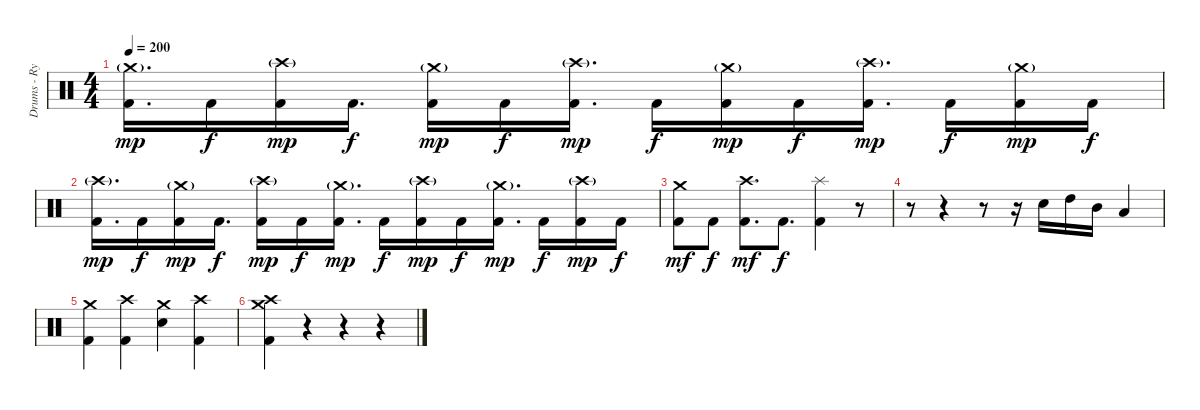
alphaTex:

\track ("Drums - Ryan Bates" "Drums - Ry") {instrument percussion}
\staff {score}
\articulation defaults
\ts (4 4)
\tempo 200
\clef neutral
\ks c
("Crash medium (hit)"{g} "Kick (hit) 2").16{d dy mp} "Kick (hit) 2".16{dy f} ("Crash high (hit)"{g} "Kick (hit) 2").16{dy mp} "Kick (hit) 2".16{d dy f} ("Crash medium (hit)"{g} "Kick (hit) 2").16{dy mp} "Kick (hit) 2".16{dy f} ("Crash high (hit)"{g} "Kick (hit) 2").16{d dy mp} "Kick (hit) 2".16{dy f} ("Crash medium (hit)"{g} "Kick (hit) 2").16{dy mp} "Kick (hit) 2".16{dy f} ("Crash high (hit)"{g} "Kick (hit) 2").16{d dy mp} "Kick (hit) 2".16{dy f} ("Crash medium (hit)"{g} "Kick (hit) 2").16{dy mp} "Kick (hit) 2".16{dy f} |
("Crash high (hit)"{g} "Kick (hit) 2").16{d dy mp} "Kick (hit) 2".16{dy f} ("Crash medium (hit)"{g} "Kick (hit) 2").16{dy mp} "Kick (hit) 2".16{d dy f} ("Crash high (hit)"{g} "Kick (hit) 2").16{dy mp} "Kick (hit) 2".16{dy f} ("Crash medium (hit)"{g} "Kick (hit) 2").16{d dy mp} "Kick (hit) 2".16{dy f} ("Crash high (hit)"{g} "Kick (hit) 2").16{dy mp} "Kick (hit) 2".16{dy f} ("Crash medium (hit)"{g} "Kick (hit) 2").16{d dy mp} "Kick (hit) 2".16{dy f} ("Crash high (hit)"{g} "Kick (hit) 2").16{dy mp} "Kick (hit) 2".16{dy f} |
("Crash medium (hit)" "Kick (hit) 2").8{dy mf} "Kick (hit) 2".8{dy f} ("Crash high (hit)" "Kick (hit) 2").8{d dy mf} "Kick (hit) 2".8{d dy f} ("Splash (hit)" "Kick (hit) 2").4 r.8 |
r.8 r.4 r.8 r.16 "Snare (hit) 2".16 "High Tom (hit)".16 "Mid Tom (hit)".16 "Low Tom (hit)".4 |
("Crash medium (hit)" "Kick (hit) 2").4 ("Crash high (hit)" "Kick (hit) 2").4 ("Crash medium (hit)" "Snare (hit) 2").4 ("Crash high (hit)" "Kick (hit) 2").4 |
("Crash medium (hit)" "Crash high (hit)" "Kick (hit) 2").4 r.4{volume 0} r.4 r.4
